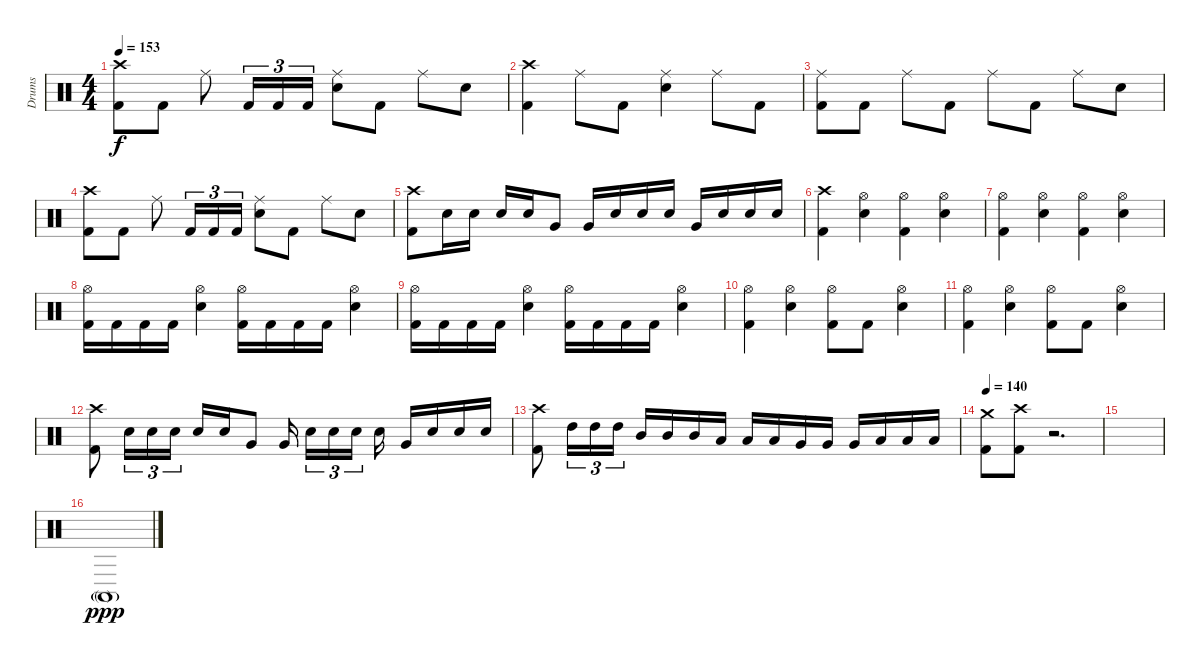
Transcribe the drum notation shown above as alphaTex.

\track ("Drums" "Drums") {instrument percussion}
\staff {score}
\articulation defaults
\ts (4 4)
\tempo 153
\clef neutral
\ks c
("Crash high (hit)" "Kick (hit) 2").8{dy f} "Kick (hit) 2".8 "Ride (middle)".8 "Kick (hit) 2".16{tu (3 2)} "Kick (hit) 2".16{tu (3 2)} "Kick (hit) 2".16{tu (3 2)} ("Ride (middle)" "Electric Snare (hit)").8 "Kick (hit) 2".8 "Ride (middle)".8 "Electric Snare (hit)".8 |
("Crash high (hit)" "Kick (hit) 2").4 "Ride (middle)".8 "Kick (hit) 2".8 ("Ride (middle)" "Electric Snare (hit)").4 "Ride (middle)".8 "Kick (hit) 2".8 |
("Ride (middle)" "Kick (hit) 2").8 "Kick (hit) 2".8 "Ride (middle)".8 "Kick (hit) 2".8 "Ride (middle)".8 "Kick (hit) 2".8 "Ride (middle)".8 "Electric Snare (hit)".8 |
("Crash high (hit)" "Kick (hit) 2").8 "Kick (hit) 2".8 "Ride (middle)".8 "Kick (hit) 2".16{tu (3 2)} "Kick (hit) 2".16{tu (3 2)} "Kick (hit) 2".16{tu (3 2)} ("Ride (middle)" "Electric Snare (hit)").8 "Kick (hit) 2".8 "Ride (middle)".8 "Electric Snare (hit)".8 |
("Crash high (hit)" "Kick (hit) 2").8 "Electric Snare (hit)".16 "Electric Snare (hit)".16 "Electric Snare (hit)".16 "Electric Snare (hit)".16 "Very Low Tom (hit)".8 "Very Low Tom (hit)".16 "Electric Snare (hit)".16 "Electric Snare (hit)".16 "Electric Snare (hit)".16 "Very Low Tom (hit)".16 "Electric Snare (hit)".16 "Electric Snare (hit)".16 "Electric Snare (hit)".16 |
("Crash high (hit)" "Kick (hit) 2").4 ("Hi-Hat (open)" "Electric Snare (hit)").4 ("Hi-Hat (open)" "Kick (hit) 2").4 ("Hi-Hat (open)" "Electric Snare (hit)").4 |
("Hi-Hat (open)" "Kick (hit) 2").4 ("Hi-Hat (open)" "Electric Snare (hit)").4 ("Hi-Hat (open)" "Kick (hit) 2").4 ("Hi-Hat (open)" "Electric Snare (hit)").4 |
("Hi-Hat (open)" "Kick (hit) 2").16 "Kick (hit) 2".16 "Kick (hit) 2".16 "Kick (hit) 2".16 ("Hi-Hat (open)" "Electric Snare (hit)").4 ("Hi-Hat (open)" "Kick (hit) 2").16 "Kick (hit) 2".16 "Kick (hit) 2".16 "Kick (hit) 2".16 ("Hi-Hat (open)" "Electric Snare (hit)").4 |
("Hi-Hat (open)" "Kick (hit) 2").16 "Kick (hit) 2".16 "Kick (hit) 2".16 "Kick (hit) 2".16 ("Hi-Hat (open)" "Electric Snare (hit)").4 ("Hi-Hat (open)" "Kick (hit) 2").16 "Kick (hit) 2".16 "Kick (hit) 2".16 "Kick (hit) 2".16 ("Hi-Hat (open)" "Electric Snare (hit)").4 |
("Hi-Hat (open)" "Kick (hit) 2").4 ("Hi-Hat (open)" "Electric Snare (hit)").4 ("Hi-Hat (open)" "Kick (hit) 2").8 "Kick (hit) 2".8 ("Hi-Hat (open)" "Electric Snare (hit)").4 |
("Hi-Hat (open)" "Kick (hit) 2").4 ("Hi-Hat (open)" "Electric Snare (hit)").4 ("Hi-Hat (open)" "Kick (hit) 2").8 "Kick (hit) 2".8 ("Hi-Hat (open)" "Electric Snare (hit)").4 |
("Crash high (hit)" "Kick (hit) 2").8 "Electric Snare (hit)".16{tu (3 2)} "Electric Snare (hit)".16{tu (3 2)} "Electric Snare (hit)".16{tu (3 2)} "Electric Snare (hit)".16 "Electric Snare (hit)".16 "Very Low Tom (hit)".8 "Very Low Tom (hit)".16{beam splitsecondary} "Electric Snare (hit)".16{tu (3 2)} "Electric Snare (hit)".16{tu (3 2)} "Electric Snare (hit)".16{tu (3 2) beam splitsecondary} "Electric Snare (hit)".16 "Very Low Tom (hit)".16 "Electric Snare (hit)".16 "Electric Snare (hit)".16 "Electric Snare (hit)".16 |
("Crash high (hit)" "Kick (hit) 2").8 "High Tom (hit)".16{tu (3 2)} "High Tom (hit)".16{tu (3 2)} "High Tom (hit)".16{tu (3 2)} "Mid Tom (hit)".16 "Mid Tom (hit)".16 "Mid Tom (hit)".16 "Low Tom (hit)".16 "Low Tom (hit)".16 "Low Tom (hit)".16 "Very Low Tom (hit)".16 "Very Low Tom (hit)".16 "Very Low Tom (hit)".16 "Low Floor Tom (hit)".16 "Low Floor Tom (hit)".16 "Low Floor Tom (hit)".16 |
\tempo 140
("Crash medium (hit)" "Kick (hit) 2").8 ("Crash high (hit)" "Kick (hit) 2").8 r.2{d} |
|
"Conga high (mute)"{g}.1{dy ppp}
